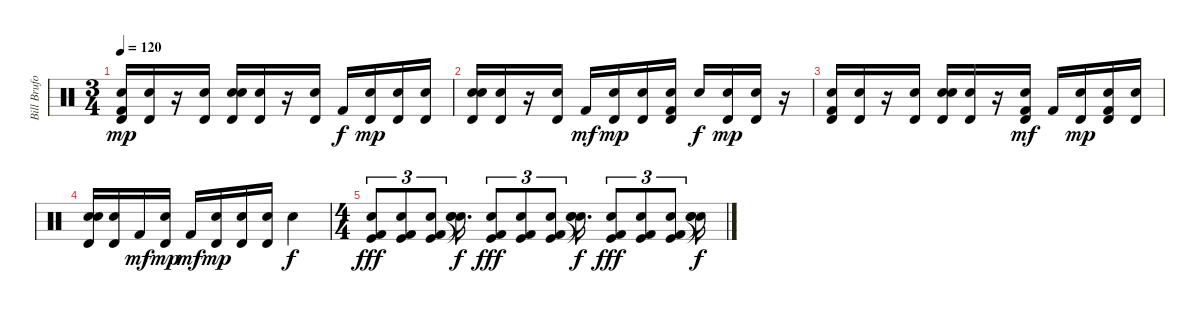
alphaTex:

\track ("Bill Bruford (Drums)" "Bill Brufo") {instrument percussion}
\staff {score}
\articulation defaults
\ts (3 4)
\tempo 120
\clef neutral
\ks c
("Electric Snare (hit)" "Timbale high (hit)" "Kick (hit) 2").16{dy mp} ("Electric Snare (hit)" "Timbale high (hit)").16 r.16 ("Electric Snare (hit)" "Timbale high (hit)").16 ("Electric Snare (hit)" "Timbale high (hit)" "Electric Snare (hit)").16 ("Electric Snare (hit)" "Timbale high (hit)").16 r.16 ("Electric Snare (hit)" "Timbale high (hit)").16 "Kick (hit) 2".16{dy f} ("Electric Snare (hit)" "Timbale high (hit)").16{dy mp} ("Electric Snare (hit)" "Timbale high (hit)").16 ("Electric Snare (hit)" "Timbale high (hit)").16 |
("Electric Snare (hit)" "Timbale high (hit)" "Electric Snare (hit)").16 ("Electric Snare (hit)" "Timbale high (hit)").16 r.16 ("Electric Snare (hit)" "Timbale high (hit)").16 "Kick (hit) 2".16{dy mf} ("Electric Snare (hit)" "Timbale high (hit)").16{dy mp} ("Electric Snare (hit)" "Timbale high (hit)").16 ("Electric Snare (hit)" "Timbale high (hit)" "Kick (hit) 2").16 "Electric Snare (hit)".16{dy f} ("Electric Snare (hit)" "Timbale high (hit)").16{dy mp} ("Electric Snare (hit)" "Timbale high (hit)").16 r.16 |
("Electric Snare (hit)" "Timbale high (hit)" "Kick (hit) 2").16 ("Electric Snare (hit)" "Timbale high (hit)").16 r.16 ("Electric Snare (hit)" "Timbale high (hit)").16 ("Electric Snare (hit)" "Timbale high (hit)" "Electric Snare (hit)").16 ("Electric Snare (hit)" "Timbale high (hit)").16 r.16 ("Electric Snare (hit)" "Timbale high (hit)" "Kick (hit) 2").16{dy mf} "Kick (hit) 2".16 ("Electric Snare (hit)" "Timbale high (hit)").16{dy mp} ("Electric Snare (hit)" "Timbale high (hit)" "Kick (hit) 2").16 ("Electric Snare (hit)" "Timbale high (hit)").16 |
("Electric Snare (hit)" "Timbale high (hit)" "Electric Snare (hit)").16 ("Electric Snare (hit)" "Timbale high (hit)").16 "Kick (hit) 2".16{dy mf} ("Electric Snare (hit)" "Timbale high (hit)").16{dy mp} "Kick (hit) 2".16{dy mf} ("Electric Snare (hit)" "Timbale high (hit)").16{dy mp} ("Electric Snare (hit)" "Timbale high (hit)").16 ("Electric Snare (hit)" "Timbale high (hit)").16 "Electric Snare (hit)".4{dy f} |
\ts (4 4)
("Snare (hit) 2" "Kick (hit)" "Kick (hit) 2").8{tu (3 2) dy fff} ("Snare (hit) 2" "Kick (hit)" "Kick (hit) 2").8{tu (3 2)} ("Snare (hit) 2" "Kick (hit)" "Kick (hit) 2").8{tu (3 2)} ("Snare (hit)"{t} "Snare (hit)"{t} "Snare (hit)"{t}).16{d dy f} ("Snare (hit) 2" "Kick (hit)" "Kick (hit) 2").8{tu (3 2) dy fff} ("Snare (hit) 2" "Kick (hit)" "Kick (hit) 2").8{tu (3 2)} ("Snare (hit) 2" "Kick (hit)" "Kick (hit) 2").8{tu (3 2)} ("Snare (hit)"{t} "Snare (hit)"{t} "Snare (hit)"{t}).16{d dy f} ("Snare (hit) 2" "Kick (hit)" "Kick (hit) 2").8{tu (3 2) dy fff} ("Snare (hit) 2" "Kick (hit)" "Kick (hit) 2").8{tu (3 2)} ("Snare (hit) 2" "Kick (hit)" "Kick (hit) 2").8{tu (3 2)} ("Snare (hit)"{t} "Snare (hit)"{t} "Snare (hit)"{t}).16{dy f}
